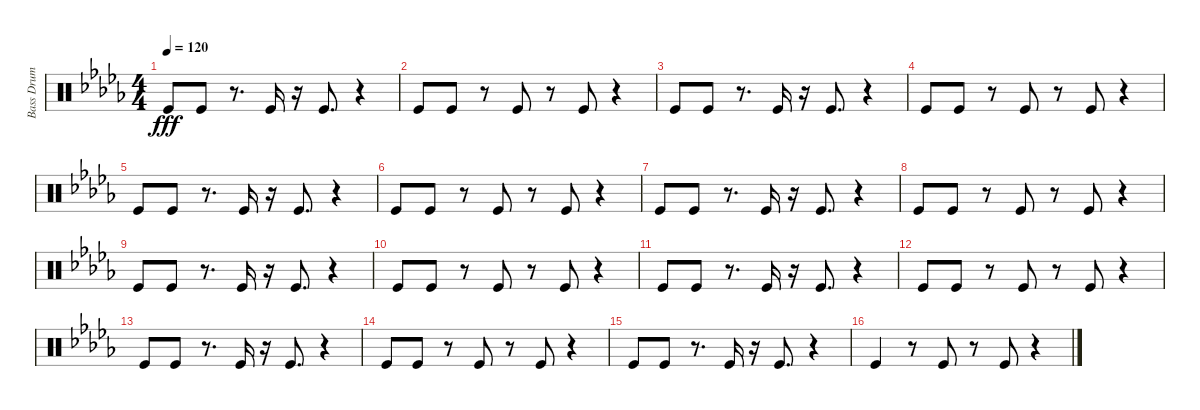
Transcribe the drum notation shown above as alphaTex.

\track ("Bass Drum" "Bass Drum") {instrument percussion}
\staff {score}
\articulation defaults
\ts (4 4)
\tempo 120
\clef neutral
\ks db "Kick (hit)".8{dy fff} "Kick (hit)".8
r.8{d} "Kick (hit)".16 r.16 "Kick (hit)".8{d} r.4 |
"Kick (hit)".8 "Kick (hit)".8 r.8 "Kick (hit)".8 r.8 "Kick (hit)".8 r.4 |
"Kick (hit)".8 "Kick (hit)".8 r.8{d} "Kick (hit)".16 r.16 "Kick (hit)".8{d} r.4 |
"Kick (hit)".8 "Kick (hit)".8 r.8 "Kick (hit)".8 r.8 "Kick (hit)".8 r.4 |
"Kick (hit)".8 "Kick (hit)".8 r.8{d} "Kick (hit)".16 r.16 "Kick (hit)".8{d} r.4 |
"Kick (hit)".8 "Kick (hit)".8 r.8 "Kick (hit)".8 r.8 "Kick (hit)".8 r.4 |
"Kick (hit)".8 "Kick (hit)".8 r.8{d} "Kick (hit)".16 r.16 "Kick (hit)".8{d} r.4 |
"Kick (hit)".8 "Kick (hit)".8 r.8 "Kick (hit)".8 r.8 "Kick (hit)".8 r.4 |
"Kick (hit)".8 "Kick (hit)".8 r.8{d} "Kick (hit)".16 r.16 "Kick (hit)".8{d} r.4 |
"Kick (hit)".8 "Kick (hit)".8 r.8 "Kick (hit)".8 r.8 "Kick (hit)".8 r.4 |
"Kick (hit)".8 "Kick (hit)".8 r.8{d} "Kick (hit)".16 r.16 "Kick (hit)".8{d} r.4 |
"Kick (hit)".8 "Kick (hit)".8 r.8 "Kick (hit)".8 r.8 "Kick (hit)".8 r.4 |
"Kick (hit)".8 "Kick (hit)".8 r.8{d} "Kick (hit)".16 r.16 "Kick (hit)".8{d} r.4 |
"Kick (hit)".8 "Kick (hit)".8 r.8 "Kick (hit)".8 r.8 "Kick (hit)".8 r.4 |
"Kick (hit)".8 "Kick (hit)".8 r.8{d} "Kick (hit)".16 r.16 "Kick (hit)".8{d} r.4 |
"Kick (hit)".4 r.8 "Kick (hit)".8 r.8 "Kick (hit)".8 r.4
